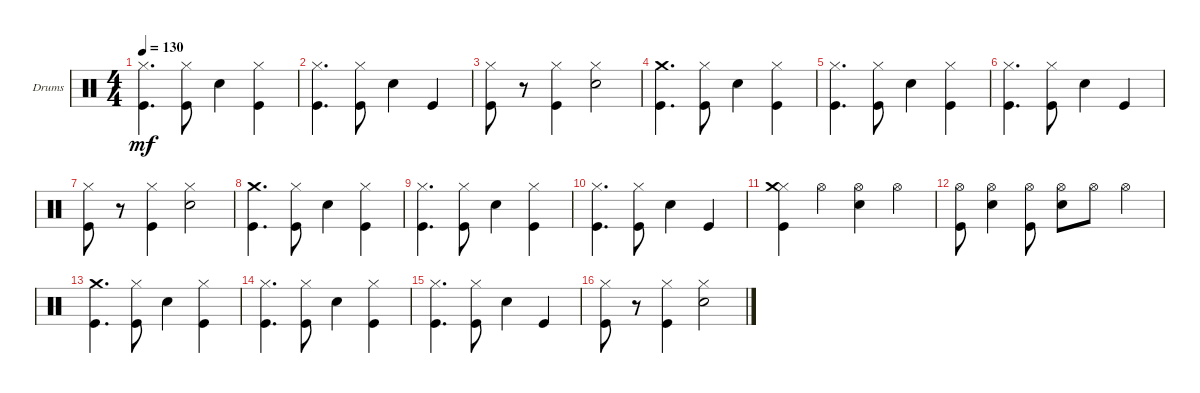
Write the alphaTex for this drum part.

\defaultSystemsLayout 4
\bracketExtendMode groupsimilarinstruments
\firstSystemTrackNameOrientation horizontal
\otherSystemsTrackNameOrientation horizontal
\track ("Drumkit" "Drums") {instrument percussion}
\staff {score}
\articulation defaults
\ts (4 4)
\tempo 130
\clef neutral
\ks c
("Kick (hit)" "Hi-Hat (closed)").4{d dy mf} ("Kick (hit)" "Hi-Hat (closed)").8 "Snare (hit) 2".4 ("Kick (hit)" "Hi-Hat (closed)").4 |
("Kick (hit)" "Hi-Hat (closed)").4{d} ("Kick (hit)" "Hi-Hat (closed)").8 "Snare (hit) 2".4 "Kick (hit)".4 |
("Kick (hit)" "Hi-Hat (closed)").8 r.8 ("Kick (hit)" "Hi-Hat (closed)").4 ("Snare (hit) 2" "Hi-Hat (closed)").2 |
("Kick (hit)" "Crash medium (hit)").4{d} ("Kick (hit)" "Hi-Hat (closed)").8 "Snare (hit) 2".4 ("Kick (hit)" "Hi-Hat (closed)").4 |
("Kick (hit)" "Hi-Hat (closed)").4{d} ("Kick (hit)" "Hi-Hat (closed)").8 "Snare (hit) 2".4 ("Kick (hit)" "Hi-Hat (closed)").4 |
("Kick (hit)" "Hi-Hat (closed)").4{d} ("Kick (hit)" "Hi-Hat (closed)").8 "Snare (hit) 2".4 "Kick (hit)".4 |
("Kick (hit)" "Hi-Hat (closed)").8 r.8 ("Kick (hit)" "Hi-Hat (closed)").4 ("Snare (hit) 2" "Hi-Hat (closed)").2 |
("Kick (hit)" "Crash medium (hit)").4{d} ("Kick (hit)" "Hi-Hat (closed)").8 "Snare (hit) 2".4 ("Kick (hit)" "Hi-Hat (closed)").4 |
("Kick (hit)" "Hi-Hat (closed)").4{d} ("Kick (hit)" "Hi-Hat (closed)").8 "Snare (hit) 2".4 ("Kick (hit)" "Hi-Hat (closed)").4 |
("Kick (hit)" "Hi-Hat (closed)").4{d} ("Kick (hit)" "Hi-Hat (closed)").8 "Snare (hit) 2".4 "Kick (hit)".4 |
("Kick (hit)" "Hi-Hat (closed)" "Crash medium (hit)").4 "Hi-Hat (open)".4 ("Hi-Hat (open)" "Snare (hit) 2").4 "Hi-Hat (open)".4 |
("Kick (hit)" "Hi-Hat (open)").8 ("Snare (hit) 2" "Hi-Hat (open)").4 ("Kick (hit)" "Hi-Hat (open)").8 ("Snare (hit) 2" "Hi-Hat (open)").8 "Hi-Hat (open)".8 "Hi-Hat (open)".4 |
("Kick (hit)" "Crash medium (hit)").4{d} ("Kick (hit)" "Hi-Hat (closed)").8 "Snare (hit) 2".4 ("Kick (hit)" "Hi-Hat (closed)").4 |
("Kick (hit)" "Hi-Hat (closed)").4{d} ("Kick (hit)" "Hi-Hat (closed)").8 "Snare (hit) 2".4 ("Kick (hit)" "Hi-Hat (closed)").4 |
("Kick (hit)" "Hi-Hat (closed)").4{d} ("Kick (hit)" "Hi-Hat (closed)").8 "Snare (hit) 2".4 "Kick (hit)".4 |
("Kick (hit)" "Hi-Hat (closed)").8 r.8 ("Kick (hit)" "Hi-Hat (closed)").4 ("Snare (hit) 2" "Hi-Hat (closed)").2
